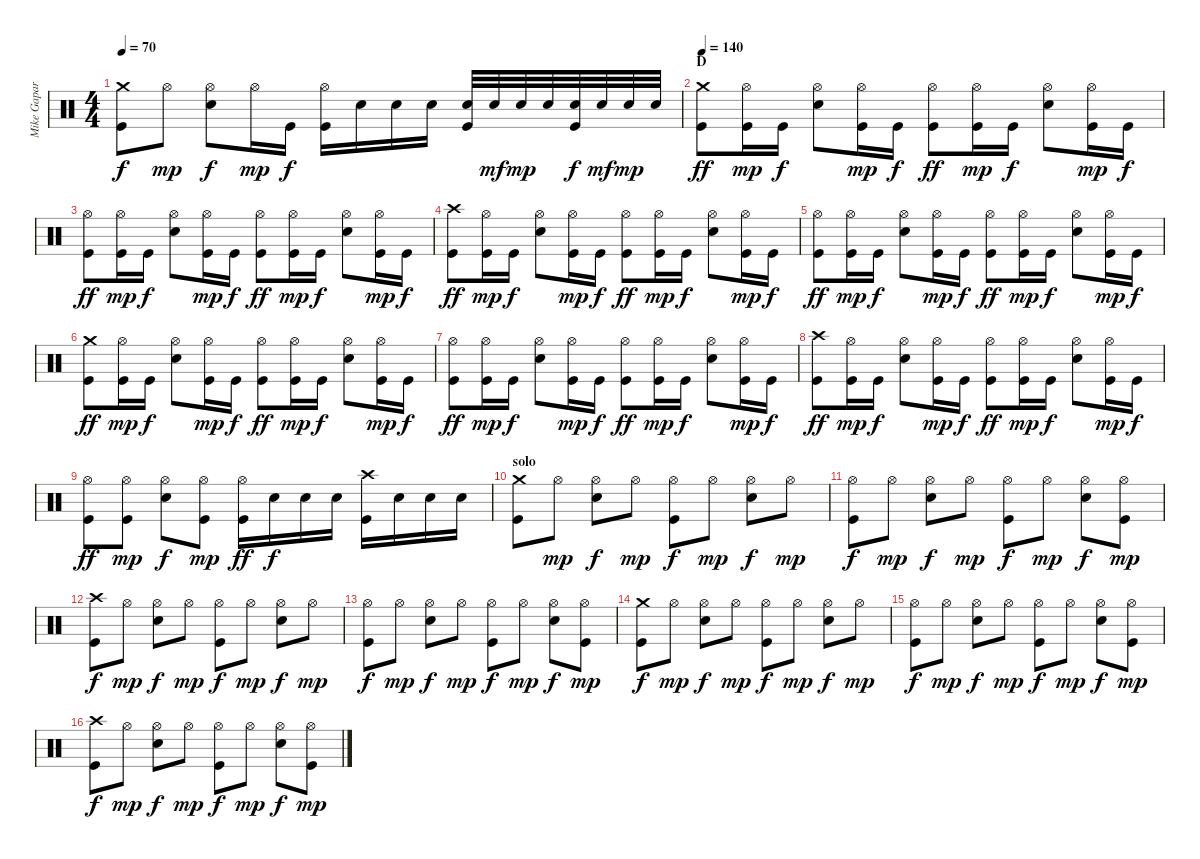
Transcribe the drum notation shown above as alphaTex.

\track ("Mike Gapar" "Mike Gapar") {instrument percussion}
\staff {score}
\articulation defaults
\ts (4 4)
\tempo 70
\clef neutral
\ks c
("Crash medium (hit)" "Kick (hit)").8{dy f} "Hi-Hat (open)".8{dy mp} ("Hi-Hat (open)" "Electric Snare (hit)").8{dy f} "Hi-Hat (open)".16{dy mp} "Kick (hit)".16{dy f} ("Hi-Hat (open)" "Kick (hit)").16 "Electric Snare (hit)".16 "Electric Snare (hit)".16 "Electric Snare (hit)".16 ("Electric Snare (hit)" "Kick (hit)").32 "Electric Snare (hit)".32{dy mf} "Electric Snare (hit)".32{dy mp} "Electric Snare (hit)".32 ("Electric Snare (hit)" "Kick (hit)").32{dy f} "Electric Snare (hit)".32{dy mf} "Electric Snare (hit)".32{dy mp} "Electric Snare (hit)".32 |
\section ("" "D")
\tempo 140
("Crash medium (hit)" "Kick (hit)").8{dy ff} ("Hi-Hat (open)" "Kick (hit)").16{dy mp} "Kick (hit)".16{dy f} ("Hi-Hat (open)" "Electric Snare (hit)").8 ("Hi-Hat (open)" "Kick (hit)").16{dy mp} "Kick (hit)".16{dy f} ("Hi-Hat (open)" "Kick (hit)").8{dy ff} ("Hi-Hat (open)" "Kick (hit)").16{dy mp} "Kick (hit)".16{dy f} ("Hi-Hat (open)" "Electric Snare (hit)").8 ("Hi-Hat (open)" "Kick (hit)").16{dy mp} "Kick (hit)".16{dy f} |
("Hi-Hat (open)" "Kick (hit)").8{dy ff} ("Hi-Hat (open)" "Kick (hit)").16{dy mp} "Kick (hit)".16{dy f} ("Hi-Hat (open)" "Electric Snare (hit)").8 ("Hi-Hat (open)" "Kick (hit)").16{dy mp} "Kick (hit)".16{dy f} ("Hi-Hat (open)" "Kick (hit)").8{dy ff} ("Hi-Hat (open)" "Kick (hit)").16{dy mp} "Kick (hit)".16{dy f} ("Hi-Hat (open)" "Electric Snare (hit)").8 ("Hi-Hat (open)" "Kick (hit)").16{dy mp} "Kick (hit)".16{dy f} |
("Crash high (hit)" "Kick (hit)").8{dy ff} ("Hi-Hat (open)" "Kick (hit)").16{dy mp} "Kick (hit)".16{dy f} ("Hi-Hat (open)" "Electric Snare (hit)").8 ("Hi-Hat (open)" "Kick (hit)").16{dy mp} "Kick (hit)".16{dy f} ("Hi-Hat (open)" "Kick (hit)").8{dy ff} ("Hi-Hat (open)" "Kick (hit)").16{dy mp} "Kick (hit)".16{dy f} ("Hi-Hat (open)" "Electric Snare (hit)").8 ("Hi-Hat (open)" "Kick (hit)").16{dy mp} "Kick (hit)".16{dy f} |
("Hi-Hat (open)" "Kick (hit)").8{dy ff} ("Hi-Hat (open)" "Kick (hit)").16{dy mp} "Kick (hit)".16{dy f} ("Hi-Hat (open)" "Electric Snare (hit)").8 ("Hi-Hat (open)" "Kick (hit)").16{dy mp} "Kick (hit)".16{dy f} ("Hi-Hat (open)" "Kick (hit)").8{dy ff} ("Hi-Hat (open)" "Kick (hit)").16{dy mp} "Kick (hit)".16{dy f} ("Hi-Hat (open)" "Electric Snare (hit)").8 ("Hi-Hat (open)" "Kick (hit)").16{dy mp} "Kick (hit)".16{dy f} |
("Crash medium (hit)" "Kick (hit)").8{dy ff} ("Hi-Hat (open)" "Kick (hit)").16{dy mp} "Kick (hit)".16{dy f} ("Hi-Hat (open)" "Electric Snare (hit)").8 ("Hi-Hat (open)" "Kick (hit)").16{dy mp} "Kick (hit)".16{dy f} ("Hi-Hat (open)" "Kick (hit)").8{dy ff} ("Hi-Hat (open)" "Kick (hit)").16{dy mp} "Kick (hit)".16{dy f} ("Hi-Hat (open)" "Electric Snare (hit)").8 ("Hi-Hat (open)" "Kick (hit)").16{dy mp} "Kick (hit)".16{dy f} |
("Hi-Hat (open)" "Kick (hit)").8{dy ff} ("Hi-Hat (open)" "Kick (hit)").16{dy mp} "Kick (hit)".16{dy f} ("Hi-Hat (open)" "Electric Snare (hit)").8 ("Hi-Hat (open)" "Kick (hit)").16{dy mp} "Kick (hit)".16{dy f} ("Hi-Hat (open)" "Kick (hit)").8{dy ff} ("Hi-Hat (open)" "Kick (hit)").16{dy mp} "Kick (hit)".16{dy f} ("Hi-Hat (open)" "Electric Snare (hit)").8 ("Hi-Hat (open)" "Kick (hit)").16{dy mp} "Kick (hit)".16{dy f} |
("Crash high (hit)" "Kick (hit)").8{dy ff} ("Hi-Hat (open)" "Kick (hit)").16{dy mp} "Kick (hit)".16{dy f} ("Hi-Hat (open)" "Electric Snare (hit)").8 ("Hi-Hat (open)" "Kick (hit)").16{dy mp} "Kick (hit)".16{dy f} ("Hi-Hat (open)" "Kick (hit)").8{dy ff} ("Hi-Hat (open)" "Kick (hit)").16{dy mp} "Kick (hit)".16{dy f} ("Hi-Hat (open)" "Electric Snare (hit)").8 ("Hi-Hat (open)" "Kick (hit)").16{dy mp} "Kick (hit)".16{dy f} |
("Hi-Hat (open)" "Kick (hit)").8{dy ff} ("Hi-Hat (open)" "Kick (hit)").8{dy mp} ("Hi-Hat (open)" "Electric Snare (hit)").8{dy f} ("Hi-Hat (open)" "Kick (hit)").8{dy mp} ("Hi-Hat (open)" "Kick (hit)").16{dy ff} "Electric Snare (hit)".16{dy f} "Electric Snare (hit)".16 "Electric Snare (hit)".16 ("Crash high (hit)" "Kick (hit)").16 "Electric Snare (hit)".16 "Electric Snare (hit)".16 "Electric Snare (hit)".16 |
\section ("" "solo")
("Crash medium (hit)" "Kick (hit)").8 "Hi-Hat (open)".8{dy mp} ("Hi-Hat (open)" "Electric Snare (hit)").8{dy f} "Hi-Hat (open)".8{dy mp} ("Hi-Hat (open)" "Kick (hit)").8{dy f} "Hi-Hat (open)".8{dy mp} ("Hi-Hat (open)" "Electric Snare (hit)").8{dy f} "Hi-Hat (open)".8{dy mp} |
("Hi-Hat (open)" "Kick (hit)").8{dy f} "Hi-Hat (open)".8{dy mp} ("Hi-Hat (open)" "Electric Snare (hit)").8{dy f} "Hi-Hat (open)".8{dy mp} ("Hi-Hat (open)" "Kick (hit)").8{dy f} "Hi-Hat (open)".8{dy mp} ("Hi-Hat (open)" "Electric Snare (hit)").8{dy f} ("Hi-Hat (open)" "Kick (hit)").8{dy mp} |
("Crash high (hit)" "Kick (hit)").8{dy f} "Hi-Hat (open)".8{dy mp} ("Hi-Hat (open)" "Electric Snare (hit)").8{dy f} "Hi-Hat (open)".8{dy mp} ("Hi-Hat (open)" "Kick (hit)").8{dy f} "Hi-Hat (open)".8{dy mp} ("Hi-Hat (open)" "Electric Snare (hit)").8{dy f} "Hi-Hat (open)".8{dy mp} |
("Hi-Hat (open)" "Kick (hit)").8{dy f} "Hi-Hat (open)".8{dy mp} ("Hi-Hat (open)" "Electric Snare (hit)").8{dy f} "Hi-Hat (open)".8{dy mp} ("Hi-Hat (open)" "Kick (hit)").8{dy f} "Hi-Hat (open)".8{dy mp} ("Hi-Hat (open)" "Electric Snare (hit)").8{dy f} ("Hi-Hat (open)" "Kick (hit)").8{dy mp} |
("Crash medium (hit)" "Kick (hit)").8{dy f} "Hi-Hat (open)".8{dy mp} ("Hi-Hat (open)" "Electric Snare (hit)").8{dy f} "Hi-Hat (open)".8{dy mp} ("Hi-Hat (open)" "Kick (hit)").8{dy f} "Hi-Hat (open)".8{dy mp} ("Hi-Hat (open)" "Electric Snare (hit)").8{dy f} "Hi-Hat (open)".8{dy mp} |
("Hi-Hat (open)" "Kick (hit)").8{dy f} "Hi-Hat (open)".8{dy mp} ("Hi-Hat (open)" "Electric Snare (hit)").8{dy f} "Hi-Hat (open)".8{dy mp} ("Hi-Hat (open)" "Kick (hit)").8{dy f} "Hi-Hat (open)".8{dy mp} ("Hi-Hat (open)" "Electric Snare (hit)").8{dy f} ("Hi-Hat (open)" "Kick (hit)").8{dy mp} |
("Crash high (hit)" "Kick (hit)").8{dy f} "Hi-Hat (open)".8{dy mp} ("Hi-Hat (open)" "Electric Snare (hit)").8{dy f} "Hi-Hat (open)".8{dy mp} ("Hi-Hat (open)" "Kick (hit)").8{dy f} "Hi-Hat (open)".8{dy mp} ("Hi-Hat (open)" "Electric Snare (hit)").8{dy f} ("Hi-Hat (open)" "Kick (hit)").8{dy mp}
